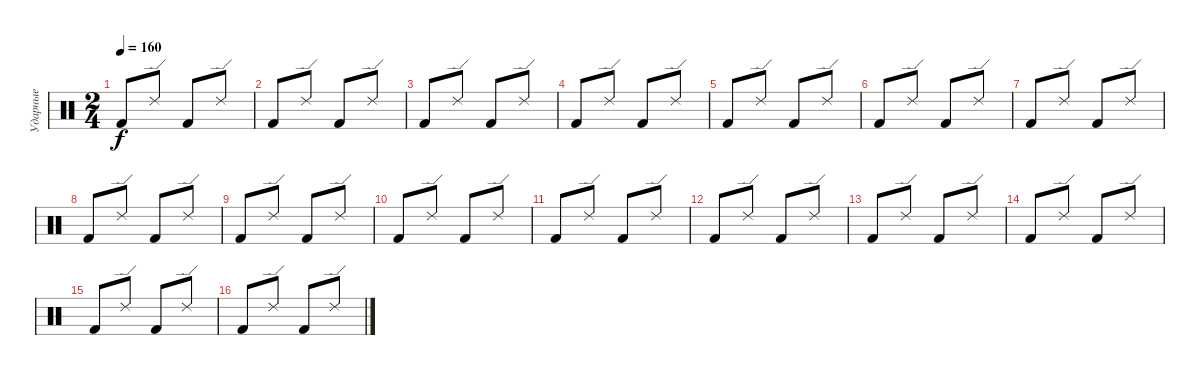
\track ("Ударные" "Ударные") {instrument percussion}
\staff {score}
\articulation defaults
\ts (2 4)
\tempo 160
\clef neutral
\ks c "Kick (hit) 2".8{dy f} "Ride (edge) 2".8 "Kick (hit) 2".8 "Ride (edge) 2".8
|
"Kick (hit) 2".8 "Ride (edge) 2".8 "Kick (hit) 2".8 "Ride (edge) 2".8 |
"Kick (hit) 2".8 "Ride (edge) 2".8 "Kick (hit) 2".8 "Ride (edge) 2".8 |
"Kick (hit) 2".8 "Ride (edge) 2".8 "Kick (hit) 2".8 "Ride (edge) 2".8 |
"Kick (hit) 2".8 "Ride (edge) 2".8 "Kick (hit) 2".8 "Ride (edge) 2".8 |
"Kick (hit) 2".8 "Ride (edge) 2".8 "Kick (hit) 2".8 "Ride (edge) 2".8 |
"Kick (hit) 2".8 "Ride (edge) 2".8 "Kick (hit) 2".8 "Ride (edge) 2".8 |
"Kick (hit) 2".8 "Ride (edge) 2".8 "Kick (hit) 2".8 "Ride (edge) 2".8 |
"Kick (hit) 2".8 "Ride (edge) 2".8 "Kick (hit) 2".8 "Ride (edge) 2".8 |
"Kick (hit) 2".8 "Ride (edge) 2".8 "Kick (hit) 2".8 "Ride (edge) 2".8 |
"Kick (hit) 2".8 "Ride (edge) 2".8 "Kick (hit) 2".8 "Ride (edge) 2".8 |
"Kick (hit) 2".8 "Ride (edge) 2".8 "Kick (hit) 2".8 "Ride (edge) 2".8 |
"Kick (hit) 2".8 "Ride (edge) 2".8 "Kick (hit) 2".8 "Ride (edge) 2".8 |
"Kick (hit) 2".8 "Ride (edge) 2".8 "Kick (hit) 2".8 "Ride (edge) 2".8 |
"Kick (hit) 2".8 "Ride (edge) 2".8 "Kick (hit) 2".8 "Ride (edge) 2".8 |
"Kick (hit) 2".8 "Ride (edge) 2".8 "Kick (hit) 2".8 "Ride (edge) 2".8
